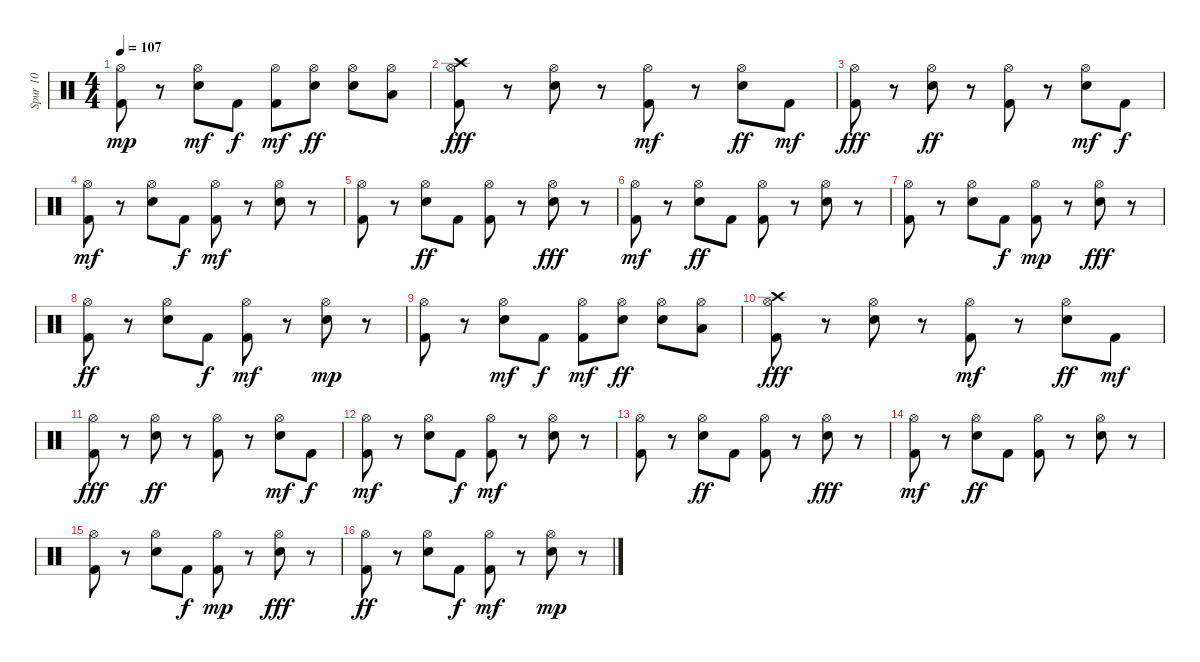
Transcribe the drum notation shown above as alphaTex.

\track ("Spur 10" "Spur 10") {instrument percussion}
\staff {score}
\articulation defaults
\ts (4 4)
\tempo 107
\clef neutral
\ks c
("Kick (hit) 2" "Hi-Hat (open)").8{dy mp} r.8 ("Electric Snare (hit)" "Hi-Hat (open)").8{dy mf} "Kick (hit) 2".8{dy f} ("Kick (hit) 2" "Hi-Hat (open)").8{dy mf} ("Hi-Hat (open)" "Electric Snare (hit)").8{dy ff} ("Hi-Hat (open)" "Electric Snare (hit)").8 ("Hi-Hat (open)" "Low Floor Tom (hit)").8 |
("Hi-Hat (open)" "Crash high (hit)" "Kick (hit) 2").8{dy fff} r.8 ("Hi-Hat (open)" "Electric Snare (hit)").8 r.8 ("Hi-Hat (open)" "Kick (hit) 2").8{dy mf} r.8 ("Hi-Hat (open)" "Electric Snare (hit)").8{dy ff} "Kick (hit) 2".8{dy mf} |
("Hi-Hat (open)" "Kick (hit) 2").8{dy fff} r.8 ("Electric Snare (hit)" "Hi-Hat (open)").8{dy ff} r.8 ("Kick (hit) 2" "Hi-Hat (open)").8 r.8 ("Electric Snare (hit)" "Hi-Hat (open)").8{dy mf} "Kick (hit) 2".8{dy f} |
("Kick (hit) 2" "Hi-Hat (open)").8{dy mf} r.8 ("Electric Snare (hit)" "Hi-Hat (open)").8 "Kick (hit) 2".8{dy f} ("Kick (hit) 2" "Hi-Hat (open)").8{dy mf} r.8 ("Electric Snare (hit)" "Hi-Hat (open)").8 r.8 |
("Kick (hit) 2" "Hi-Hat (open)").8 r.8 ("Hi-Hat (open)" "Electric Snare (hit)").8{dy ff} "Kick (hit) 2".8 ("Hi-Hat (open)" "Kick (hit) 2").8 r.8 ("Hi-Hat (open)" "Electric Snare (hit)").8{dy fff} r.8 |
("Kick (hit) 2" "Hi-Hat (open)").8{dy mf} r.8 ("Hi-Hat (open)" "Electric Snare (hit)").8{dy ff} "Kick (hit) 2".8 ("Hi-Hat (open)" "Kick (hit) 2").8 r.8 ("Hi-Hat (open)" "Electric Snare (hit)").8 r.8 |
("Hi-Hat (open)" "Kick (hit) 2").8 r.8 ("Hi-Hat (open)" "Electric Snare (hit)").8 "Kick (hit) 2".8{dy f} ("Hi-Hat (open)" "Kick (hit) 2").8{dy mp} r.8 ("Hi-Hat (open)" "Electric Snare (hit)").8{dy fff} r.8 |
("Hi-Hat (open)" "Kick (hit) 2").8{dy ff} r.8 ("Hi-Hat (open)" "Electric Snare (hit)").8 "Kick (hit) 2".8{dy f} ("Kick (hit) 2" "Hi-Hat (open)").8{dy mf} r.8 ("Electric Snare (hit)" "Hi-Hat (open)").8{dy mp} r.8 |
("Kick (hit) 2" "Hi-Hat (open)").8 r.8 ("Electric Snare (hit)" "Hi-Hat (open)").8{dy mf} "Kick (hit) 2".8{dy f} ("Kick (hit) 2" "Hi-Hat (open)").8{dy mf} ("Hi-Hat (open)" "Electric Snare (hit)").8{dy ff} ("Hi-Hat (open)" "Electric Snare (hit)").8 ("Hi-Hat (open)" "Low Floor Tom (hit)").8 |
("Hi-Hat (open)" "Crash high (hit)" "Kick (hit) 2").8{dy fff} r.8 ("Hi-Hat (open)" "Electric Snare (hit)").8 r.8 ("Hi-Hat (open)" "Kick (hit) 2").8{dy mf} r.8 ("Hi-Hat (open)" "Electric Snare (hit)").8{dy ff} "Kick (hit) 2".8{dy mf} |
("Hi-Hat (open)" "Kick (hit) 2").8{dy fff} r.8 ("Electric Snare (hit)" "Hi-Hat (open)").8{dy ff} r.8 ("Kick (hit) 2" "Hi-Hat (open)").8 r.8 ("Electric Snare (hit)" "Hi-Hat (open)").8{dy mf} "Kick (hit) 2".8{dy f} |
("Kick (hit) 2" "Hi-Hat (open)").8{dy mf} r.8 ("Electric Snare (hit)" "Hi-Hat (open)").8 "Kick (hit) 2".8{dy f} ("Kick (hit) 2" "Hi-Hat (open)").8{dy mf} r.8 ("Electric Snare (hit)" "Hi-Hat (open)").8 r.8 |
("Kick (hit) 2" "Hi-Hat (open)").8 r.8 ("Hi-Hat (open)" "Electric Snare (hit)").8{dy ff} "Kick (hit) 2".8 ("Hi-Hat (open)" "Kick (hit) 2").8 r.8 ("Hi-Hat (open)" "Electric Snare (hit)").8{dy fff} r.8 |
("Kick (hit) 2" "Hi-Hat (open)").8{dy mf} r.8 ("Hi-Hat (open)" "Electric Snare (hit)").8{dy ff} "Kick (hit) 2".8 ("Hi-Hat (open)" "Kick (hit) 2").8 r.8 ("Hi-Hat (open)" "Electric Snare (hit)").8 r.8 |
("Hi-Hat (open)" "Kick (hit) 2").8 r.8 ("Hi-Hat (open)" "Electric Snare (hit)").8 "Kick (hit) 2".8{dy f} ("Hi-Hat (open)" "Kick (hit) 2").8{dy mp} r.8 ("Hi-Hat (open)" "Electric Snare (hit)").8{dy fff} r.8 |
("Hi-Hat (open)" "Kick (hit) 2").8{dy ff} r.8 ("Hi-Hat (open)" "Electric Snare (hit)").8 "Kick (hit) 2".8{dy f} ("Kick (hit) 2" "Hi-Hat (open)").8{dy mf} r.8 ("Electric Snare (hit)" "Hi-Hat (open)").8{dy mp} r.8
